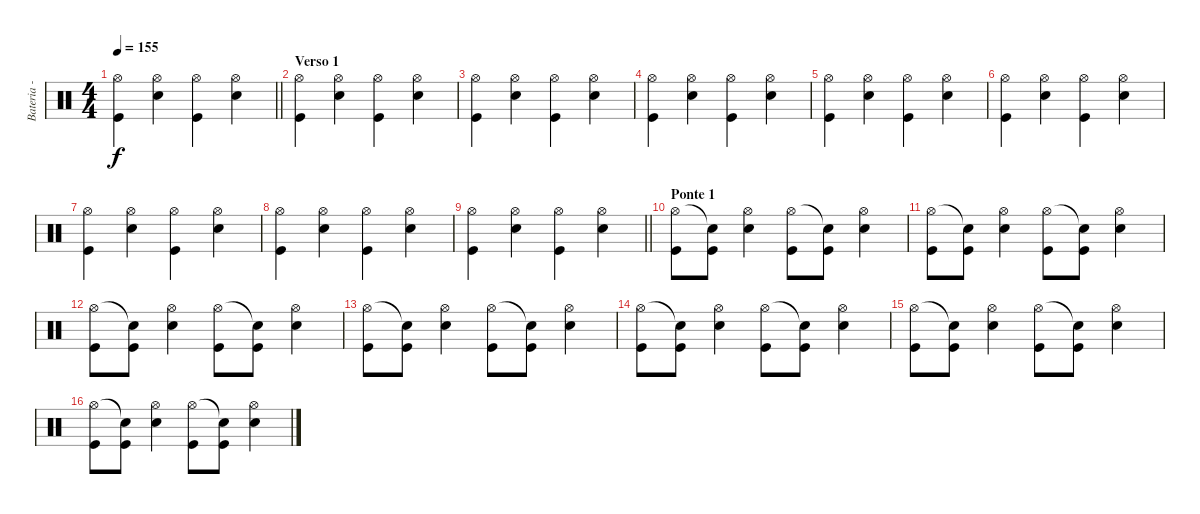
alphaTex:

\track ("Bateria - Craig Nunumacher" "Bateria - ") {instrument percussion}
\staff {score}
\articulation defaults
\ts (4 4)
\tempo 155
\clef neutral
\barLineRight lightlight
\ks c
("Hi-Hat (open)" "Kick (hit)").4{dy f} ("Hi-Hat (open)" "Electric Snare (hit)").4 ("Hi-Hat (open)" "Kick (hit)").4 ("Hi-Hat (open)" "Electric Snare (hit)").4 |
\section ("" "Verso 1")
("Hi-Hat (open)" "Kick (hit)").4 ("Hi-Hat (open)" "Electric Snare (hit)").4 ("Hi-Hat (open)" "Kick (hit)").4 ("Hi-Hat (open)" "Electric Snare (hit)").4 |
("Hi-Hat (open)" "Kick (hit)").4 ("Hi-Hat (open)" "Electric Snare (hit)").4 ("Hi-Hat (open)" "Kick (hit)").4 ("Hi-Hat (open)" "Electric Snare (hit)").4 |
("Hi-Hat (open)" "Kick (hit)").4 ("Hi-Hat (open)" "Electric Snare (hit)").4 ("Hi-Hat (open)" "Kick (hit)").4 ("Hi-Hat (open)" "Electric Snare (hit)").4 |
("Hi-Hat (open)" "Kick (hit)").4 ("Hi-Hat (open)" "Electric Snare (hit)").4 ("Hi-Hat (open)" "Kick (hit)").4 ("Hi-Hat (open)" "Electric Snare (hit)").4 |
("Hi-Hat (open)" "Kick (hit)").4 ("Hi-Hat (open)" "Electric Snare (hit)").4 ("Hi-Hat (open)" "Kick (hit)").4 ("Hi-Hat (open)" "Electric Snare (hit)").4 |
("Hi-Hat (open)" "Kick (hit)").4 ("Hi-Hat (open)" "Electric Snare (hit)").4 ("Hi-Hat (open)" "Kick (hit)").4 ("Hi-Hat (open)" "Electric Snare (hit)").4 |
("Hi-Hat (open)" "Kick (hit)").4 ("Hi-Hat (open)" "Electric Snare (hit)").4 ("Hi-Hat (open)" "Kick (hit)").4 ("Hi-Hat (open)" "Electric Snare (hit)").4 |
\barLineRight lightlight
("Hi-Hat (open)" "Kick (hit)").4 ("Hi-Hat (open)" "Electric Snare (hit)").4 ("Hi-Hat (open)" "Kick (hit)").4 ("Hi-Hat (open)" "Electric Snare (hit)").4 |
\section ("" "Ponte 1")
("Hi-Hat (open)" "Kick (hit)").8 ("Snare (hit)"{t} "Kick (hit)").8 ("Hi-Hat (open)" "Electric Snare (hit)").4 ("Hi-Hat (open)" "Kick (hit)").8 ("Snare (hit)"{t} "Kick (hit)").8 ("Hi-Hat (open)" "Electric Snare (hit)").4 |
("Hi-Hat (open)" "Kick (hit)").8 ("Snare (hit)"{t} "Kick (hit)").8 ("Hi-Hat (open)" "Electric Snare (hit)").4 ("Hi-Hat (open)" "Kick (hit)").8 ("Snare (hit)"{t} "Kick (hit)").8 ("Hi-Hat (open)" "Electric Snare (hit)").4 |
("Hi-Hat (open)" "Kick (hit)").8 ("Snare (hit)"{t} "Kick (hit)").8 ("Hi-Hat (open)" "Electric Snare (hit)").4 ("Hi-Hat (open)" "Kick (hit)").8 ("Snare (hit)"{t} "Kick (hit)").8 ("Hi-Hat (open)" "Electric Snare (hit)").4 |
("Hi-Hat (open)" "Kick (hit)").8 ("Snare (hit)"{t} "Kick (hit)").8 ("Hi-Hat (open)" "Electric Snare (hit)").4 ("Hi-Hat (open)" "Kick (hit)").8 ("Snare (hit)"{t} "Kick (hit)").8 ("Hi-Hat (open)" "Electric Snare (hit)").4 |
("Hi-Hat (open)" "Kick (hit)").8 ("Snare (hit)"{t} "Kick (hit)").8 ("Hi-Hat (open)" "Electric Snare (hit)").4 ("Hi-Hat (open)" "Kick (hit)").8 ("Snare (hit)"{t} "Kick (hit)").8 ("Hi-Hat (open)" "Electric Snare (hit)").4 |
("Hi-Hat (open)" "Kick (hit)").8 ("Snare (hit)"{t} "Kick (hit)").8 ("Hi-Hat (open)" "Electric Snare (hit)").4 ("Hi-Hat (open)" "Kick (hit)").8 ("Snare (hit)"{t} "Kick (hit)").8 ("Hi-Hat (open)" "Electric Snare (hit)").4 |
("Hi-Hat (open)" "Kick (hit)").8 ("Snare (hit)"{t} "Kick (hit)").8 ("Hi-Hat (open)" "Electric Snare (hit)").4 ("Hi-Hat (open)" "Kick (hit)").8 ("Snare (hit)"{t} "Kick (hit)").8 ("Hi-Hat (open)" "Electric Snare (hit)").4
